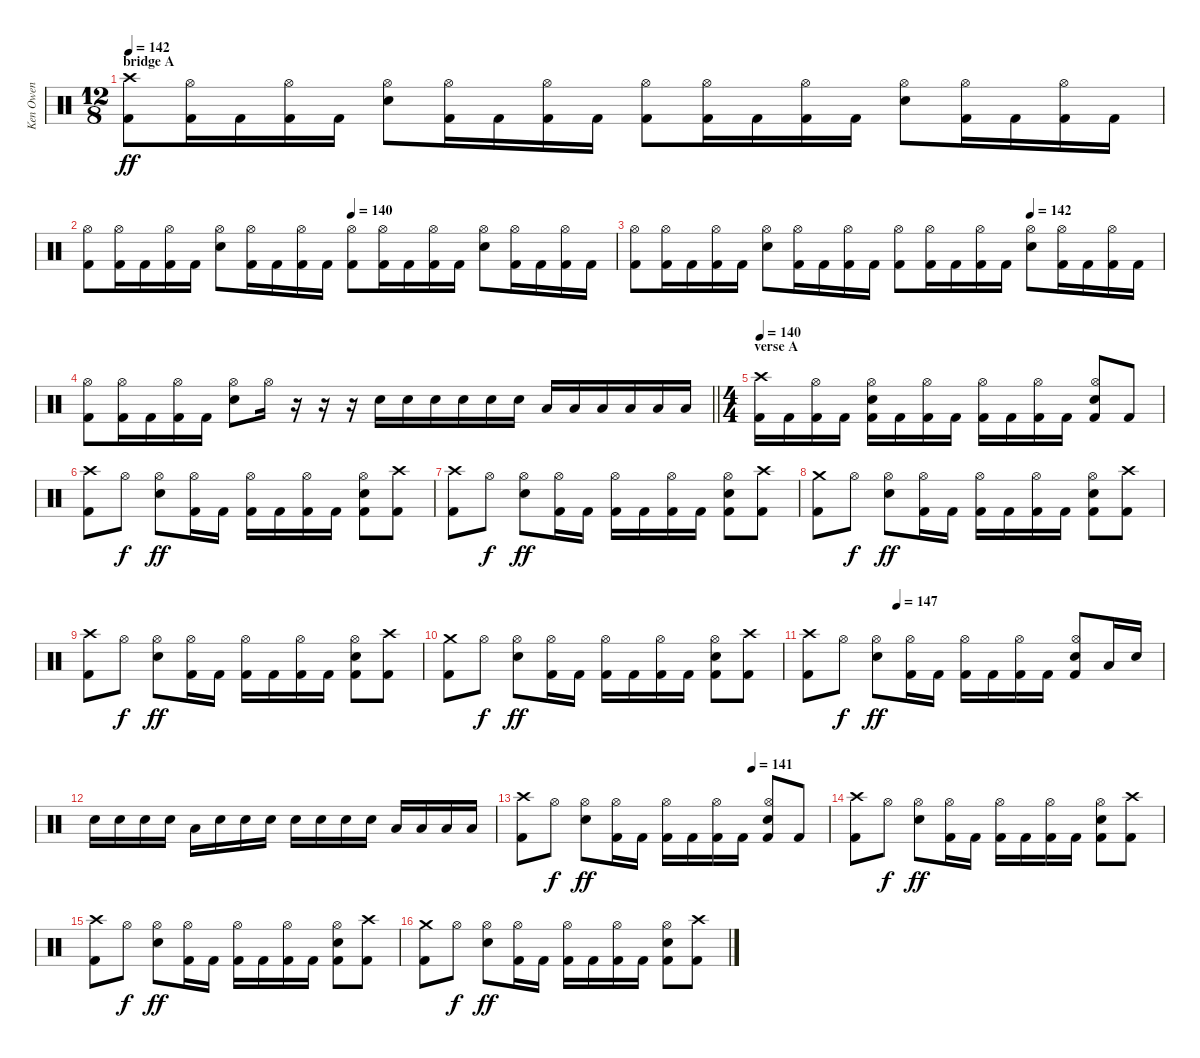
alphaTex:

\track ("Ken Owen" "Ken Owen") {instrument percussion}
\staff {score}
\articulation defaults
\ts (12 8)
\section ("" "bridge A")
\tempo 142
\clef neutral
\ks c
("Crash high (hit)" "Kick (hit) 2").8{dy ff} ("Hi-Hat (open)" "Kick (hit) 2").16 "Kick (hit) 2".16 ("Hi-Hat (open)" "Kick (hit) 2").16 "Kick (hit) 2".16 ("Hi-Hat (open)" "Snare (hit) 2").8 ("Hi-Hat (open)" "Kick (hit) 2").16 "Kick (hit) 2".16 ("Hi-Hat (open)" "Kick (hit) 2").16 "Kick (hit) 2".16 ("Hi-Hat (open)" "Kick (hit) 2").8 ("Hi-Hat (open)" "Kick (hit) 2").16 "Kick (hit) 2".16 ("Hi-Hat (open)" "Kick (hit) 2").16 "Kick (hit) 2".16 ("Hi-Hat (open)" "Snare (hit) 2").8 ("Hi-Hat (open)" "Kick (hit) 2").16 "Kick (hit) 2".16 ("Hi-Hat (open)" "Kick (hit) 2").16 "Kick (hit) 2".16 |
\tempo (140 0.5)
("Hi-Hat (open)" "Kick (hit) 2").8 ("Hi-Hat (open)" "Kick (hit) 2").16 "Kick (hit) 2".16 ("Hi-Hat (open)" "Kick (hit) 2").16 "Kick (hit) 2".16 ("Hi-Hat (open)" "Snare (hit) 2").8 ("Hi-Hat (open)" "Kick (hit) 2").16 "Kick (hit) 2".16 ("Hi-Hat (open)" "Kick (hit) 2").16 "Kick (hit) 2".16 ("Hi-Hat (open)" "Kick (hit) 2").8 ("Hi-Hat (open)" "Kick (hit) 2").16 "Kick (hit) 2".16 ("Hi-Hat (open)" "Kick (hit) 2").16 "Kick (hit) 2".16 ("Hi-Hat (open)" "Snare (hit) 2").8 ("Hi-Hat (open)" "Kick (hit) 2").16 "Kick (hit) 2".16 ("Hi-Hat (open)" "Kick (hit) 2").16 "Kick (hit) 2".16 |
\tempo (142 0.75)
("Hi-Hat (open)" "Kick (hit) 2").8 ("Hi-Hat (open)" "Kick (hit) 2").16 "Kick (hit) 2".16 ("Hi-Hat (open)" "Kick (hit) 2").16 "Kick (hit) 2".16 ("Hi-Hat (open)" "Snare (hit) 2").8 ("Hi-Hat (open)" "Kick (hit) 2").16 "Kick (hit) 2".16 ("Hi-Hat (open)" "Kick (hit) 2").16 "Kick (hit) 2".16 ("Hi-Hat (open)" "Kick (hit) 2").8 ("Hi-Hat (open)" "Kick (hit) 2").16 "Kick (hit) 2".16 ("Hi-Hat (open)" "Kick (hit) 2").16 "Kick (hit) 2".16 ("Hi-Hat (open)" "Snare (hit) 2").8 ("Hi-Hat (open)" "Kick (hit) 2").16 "Kick (hit) 2".16 ("Hi-Hat (open)" "Kick (hit) 2").16 "Kick (hit) 2".16 |
\barLineRight lightlight
("Hi-Hat (open)" "Kick (hit) 2").8 ("Hi-Hat (open)" "Kick (hit) 2").16 "Kick (hit) 2".16 ("Hi-Hat (open)" "Kick (hit) 2").16 "Kick (hit) 2".16 ("Hi-Hat (open)" "Snare (hit) 2").8 "Hi-Hat (open)".16 r.16 r.16 r.16 "Snare (hit) 2".16 "Snare (hit) 2".16 "Snare (hit) 2".16 "Snare (hit) 2".16 "Snare (hit) 2".16 "Snare (hit) 2".16 "Low Tom (hit)".16 "Low Tom (hit)".16 "Low Tom (hit)".16 "Low Tom (hit)".16 "Low Tom (hit)".16 "Low Tom (hit)".16 |
\ts (4 4)
\section ("" "verse A")
\tempo 140
("Crash high (hit)" "Kick (hit) 2").16 "Kick (hit) 2".16 ("Hi-Hat (open)" "Kick (hit) 2").16 "Kick (hit) 2".16 ("Hi-Hat (open)" "Snare (hit) 2" "Kick (hit) 2").16 "Kick (hit) 2".16 ("Hi-Hat (open)" "Kick (hit) 2").16 "Kick (hit) 2".16 ("Hi-Hat (open)" "Kick (hit) 2").16 "Kick (hit) 2".16 ("Hi-Hat (open)" "Kick (hit) 2").16 "Kick (hit) 2".16 ("Hi-Hat (open)" "Snare (hit) 2" "Kick (hit) 2").8 "Kick (hit) 2".8 |
("Crash high (hit)" "Kick (hit) 2").8 "Hi-Hat (open)".8{dy f} ("Hi-Hat (open)" "Snare (hit) 2").8{dy ff} ("Hi-Hat (open)" "Kick (hit) 2").16 "Kick (hit) 2".16 ("Hi-Hat (open)" "Kick (hit) 2").16 "Kick (hit) 2".16 ("Hi-Hat (open)" "Kick (hit) 2").16 "Kick (hit) 2".16 ("Hi-Hat (open)" "Snare (hit) 2" "Kick (hit) 2").8 ("Crash high (hit)" "Kick (hit) 2").8 |
("Crash high (hit)" "Kick (hit) 2").8 "Hi-Hat (open)".8{dy f} ("Hi-Hat (open)" "Snare (hit) 2").8{dy ff} ("Hi-Hat (open)" "Kick (hit) 2").16 "Kick (hit) 2".16 ("Hi-Hat (open)" "Kick (hit) 2").16 "Kick (hit) 2".16 ("Hi-Hat (open)" "Kick (hit) 2").16 "Kick (hit) 2".16 ("Hi-Hat (open)" "Snare (hit) 2" "Kick (hit) 2").8 ("Crash high (hit)" "Kick (hit) 2").8 |
("Crash medium (hit)" "Kick (hit) 2").8 "Hi-Hat (open)".8{dy f} ("Hi-Hat (open)" "Snare (hit) 2").8{dy ff} ("Hi-Hat (open)" "Kick (hit) 2").16 "Kick (hit) 2".16 ("Hi-Hat (open)" "Kick (hit) 2").16 "Kick (hit) 2".16 ("Hi-Hat (open)" "Kick (hit) 2").16 "Kick (hit) 2".16 ("Hi-Hat (open)" "Snare (hit) 2" "Kick (hit) 2").8 ("Crash high (hit)" "Kick (hit) 2").8 |
("Crash high (hit)" "Kick (hit) 2").8 "Hi-Hat (open)".8{dy f} ("Hi-Hat (open)" "Snare (hit) 2").8{dy ff} ("Hi-Hat (open)" "Kick (hit) 2").16 "Kick (hit) 2".16 ("Hi-Hat (open)" "Kick (hit) 2").16 "Kick (hit) 2".16 ("Hi-Hat (open)" "Kick (hit) 2").16 "Kick (hit) 2".16 ("Hi-Hat (open)" "Snare (hit) 2" "Kick (hit) 2").8 ("Crash high (hit)" "Kick (hit) 2").8 |
("Crash medium (hit)" "Kick (hit) 2").8 "Hi-Hat (open)".8{dy f} ("Hi-Hat (open)" "Snare (hit) 2").8{dy ff} ("Hi-Hat (open)" "Kick (hit) 2").16 "Kick (hit) 2".16 ("Hi-Hat (open)" "Kick (hit) 2").16 "Kick (hit) 2".16 ("Hi-Hat (open)" "Kick (hit) 2").16 "Kick (hit) 2".16 ("Hi-Hat (open)" "Snare (hit) 2" "Kick (hit) 2").8 ("Crash high (hit)" "Kick (hit) 2").8 |
\tempo (147 0.25)
("Crash high (hit)" "Kick (hit) 2").8 "Hi-Hat (open)".8{dy f} ("Hi-Hat (open)" "Snare (hit) 2").8{dy ff} ("Hi-Hat (open)" "Kick (hit) 2").16 "Kick (hit) 2".16 ("Hi-Hat (open)" "Kick (hit) 2").16 "Kick (hit) 2".16 ("Hi-Hat (open)" "Kick (hit) 2").16 "Kick (hit) 2".16 ("Hi-Hat (open)" "Snare (hit) 2" "Kick (hit) 2").8 "Low Tom (hit)".16 "Snare (hit) 2".16 |
"Snare (hit) 2".16 "Snare (hit) 2".16 "Snare (hit) 2".16 "Snare (hit) 2".16 "Low Tom (hit)".16 "Snare (hit) 2".16 "Snare (hit) 2".16 "Snare (hit) 2".16 "Snare (hit) 2".16 "Snare (hit) 2".16 "Snare (hit) 2".16 "Snare (hit) 2".16 "Low Tom (hit)".16 "Low Tom (hit)".16 "Low Tom (hit)".16 "Low Tom (hit)".16 |
\tempo (141 0.75)
("Crash high (hit)" "Kick (hit) 2").8 "Hi-Hat (open)".8{dy f} ("Hi-Hat (open)" "Snare (hit) 2").8{dy ff} ("Hi-Hat (open)" "Kick (hit) 2").16 "Kick (hit) 2".16 ("Hi-Hat (open)" "Kick (hit) 2").16 "Kick (hit) 2".16 ("Hi-Hat (open)" "Kick (hit) 2").16 "Kick (hit) 2".16 ("Hi-Hat (open)" "Snare (hit) 2" "Kick (hit) 2").8 "Kick (hit) 2".8 |
("Crash high (hit)" "Kick (hit) 2").8 "Hi-Hat (open)".8{dy f} ("Hi-Hat (open)" "Snare (hit) 2").8{dy ff} ("Hi-Hat (open)" "Kick (hit) 2").16 "Kick (hit) 2".16 ("Hi-Hat (open)" "Kick (hit) 2").16 "Kick (hit) 2".16 ("Hi-Hat (open)" "Kick (hit) 2").16 "Kick (hit) 2".16 ("Hi-Hat (open)" "Snare (hit) 2" "Kick (hit) 2").8 ("Crash high (hit)" "Kick (hit) 2").8 |
("Crash high (hit)" "Kick (hit) 2").8 "Hi-Hat (open)".8{dy f} ("Hi-Hat (open)" "Snare (hit) 2").8{dy ff} ("Hi-Hat (open)" "Kick (hit) 2").16 "Kick (hit) 2".16 ("Hi-Hat (open)" "Kick (hit) 2").16 "Kick (hit) 2".16 ("Hi-Hat (open)" "Kick (hit) 2").16 "Kick (hit) 2".16 ("Hi-Hat (open)" "Snare (hit) 2" "Kick (hit) 2").8 ("Crash high (hit)" "Kick (hit) 2").8 |
("Crash medium (hit)" "Kick (hit) 2").8 "Hi-Hat (open)".8{dy f} ("Hi-Hat (open)" "Snare (hit) 2").8{dy ff} ("Hi-Hat (open)" "Kick (hit) 2").16 "Kick (hit) 2".16 ("Hi-Hat (open)" "Kick (hit) 2").16 "Kick (hit) 2".16 ("Hi-Hat (open)" "Kick (hit) 2").16 "Kick (hit) 2".16 ("Hi-Hat (open)" "Snare (hit) 2" "Kick (hit) 2").8 ("Crash high (hit)" "Kick (hit) 2").8
